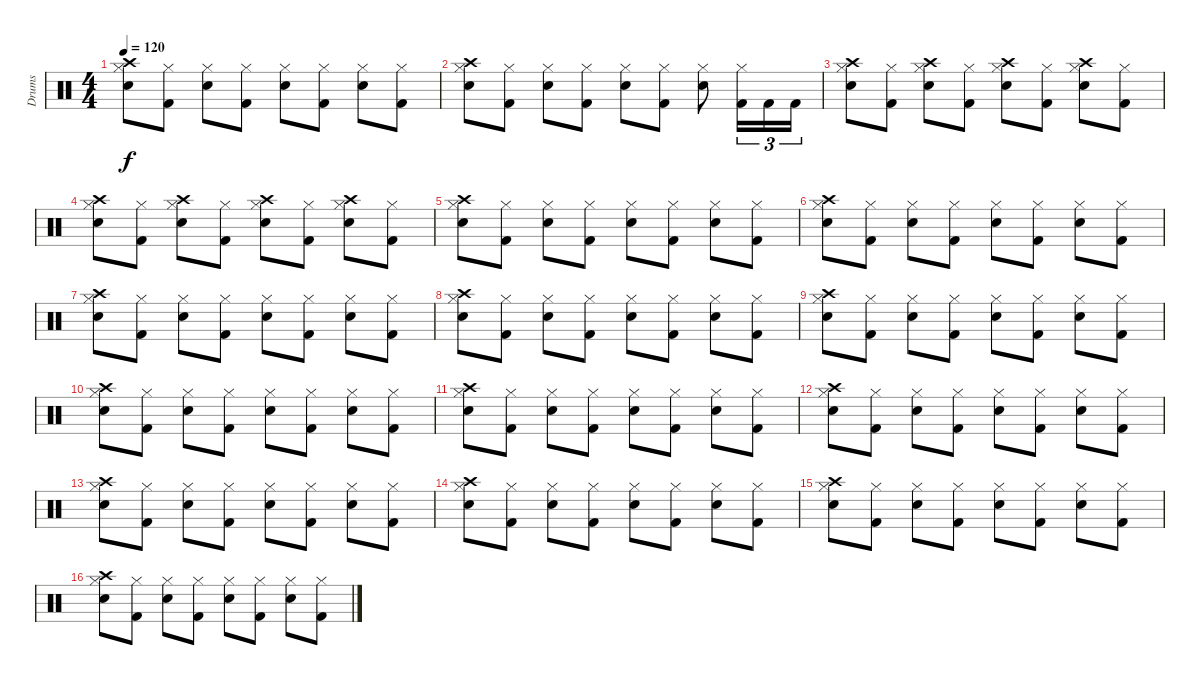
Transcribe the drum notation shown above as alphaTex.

\track ("Drums" "Drums") {instrument percussion}
\staff {score}
\articulation defaults
\ts (4 4)
\tempo 120
\clef neutral
\ks c
("Crash high (hit)" "Hi-Hat (closed)" "Electric Snare (hit)").8{dy f} ("Hi-Hat (closed)" "Kick (hit) 2").8 ("Hi-Hat (closed)" "Electric Snare (hit)").8 ("Hi-Hat (closed)" "Kick (hit) 2").8 ("Hi-Hat (closed)" "Electric Snare (hit)").8 ("Hi-Hat (closed)" "Kick (hit) 2").8 ("Hi-Hat (closed)" "Electric Snare (hit)").8 ("Hi-Hat (closed)" "Kick (hit) 2").8 |
("Crash high (hit)" "Hi-Hat (closed)" "Electric Snare (hit)").8 ("Hi-Hat (closed)" "Kick (hit) 2").8 ("Hi-Hat (closed)" "Electric Snare (hit)").8 ("Hi-Hat (closed)" "Kick (hit) 2").8 ("Hi-Hat (closed)" "Electric Snare (hit)").8 ("Hi-Hat (closed)" "Kick (hit) 2").8 ("Hi-Hat (closed)" "Electric Snare (hit)").8 ("Hi-Hat (closed)" "Kick (hit) 2").16{tu (3 2)} "Kick (hit) 2".16{tu (3 2)} "Kick (hit) 2".16{tu (3 2)} |
("Crash high (hit)" "Hi-Hat (closed)" "Electric Snare (hit)").8 ("Hi-Hat (closed)" "Kick (hit) 2").8 ("Crash high (hit)" "Hi-Hat (closed)" "Electric Snare (hit)").8 ("Hi-Hat (closed)" "Kick (hit) 2").8 ("Crash high (hit)" "Hi-Hat (closed)" "Electric Snare (hit)").8 ("Hi-Hat (closed)" "Kick (hit) 2").8 ("Crash high (hit)" "Hi-Hat (closed)" "Electric Snare (hit)").8 ("Hi-Hat (closed)" "Kick (hit) 2").8 |
("Crash high (hit)" "Hi-Hat (closed)" "Electric Snare (hit)").8 ("Hi-Hat (closed)" "Kick (hit) 2").8 ("Crash high (hit)" "Hi-Hat (closed)" "Electric Snare (hit)").8 ("Hi-Hat (closed)" "Kick (hit) 2").8 ("Crash high (hit)" "Hi-Hat (closed)" "Electric Snare (hit)").8 ("Hi-Hat (closed)" "Kick (hit) 2").8 ("Crash high (hit)" "Hi-Hat (closed)" "Electric Snare (hit)").8 ("Hi-Hat (closed)" "Kick (hit) 2").8 |
("Crash high (hit)" "Hi-Hat (closed)" "Electric Snare (hit)").8 ("Hi-Hat (closed)" "Kick (hit) 2").8 ("Hi-Hat (closed)" "Electric Snare (hit)").8 ("Hi-Hat (closed)" "Kick (hit) 2").8 ("Hi-Hat (closed)" "Electric Snare (hit)").8 ("Hi-Hat (closed)" "Kick (hit) 2").8 ("Hi-Hat (closed)" "Electric Snare (hit)").8 ("Hi-Hat (closed)" "Kick (hit) 2").8 |
("Crash high (hit)" "Hi-Hat (closed)" "Electric Snare (hit)").8 ("Hi-Hat (closed)" "Kick (hit) 2").8 ("Hi-Hat (closed)" "Electric Snare (hit)").8 ("Hi-Hat (closed)" "Kick (hit) 2").8 ("Hi-Hat (closed)" "Electric Snare (hit)").8 ("Hi-Hat (closed)" "Kick (hit) 2").8 ("Hi-Hat (closed)" "Electric Snare (hit)").8 ("Hi-Hat (closed)" "Kick (hit) 2").8 |
("Crash high (hit)" "Hi-Hat (closed)" "Electric Snare (hit)").8 ("Hi-Hat (closed)" "Kick (hit) 2").8 ("Hi-Hat (closed)" "Electric Snare (hit)").8 ("Hi-Hat (closed)" "Kick (hit) 2").8 ("Hi-Hat (closed)" "Electric Snare (hit)").8 ("Hi-Hat (closed)" "Kick (hit) 2").8 ("Hi-Hat (closed)" "Electric Snare (hit)").8 ("Hi-Hat (closed)" "Kick (hit) 2").8 |
("Crash high (hit)" "Hi-Hat (closed)" "Electric Snare (hit)").8 ("Hi-Hat (closed)" "Kick (hit) 2").8 ("Hi-Hat (closed)" "Electric Snare (hit)").8 ("Hi-Hat (closed)" "Kick (hit) 2").8 ("Hi-Hat (closed)" "Electric Snare (hit)").8 ("Hi-Hat (closed)" "Kick (hit) 2").8 ("Hi-Hat (closed)" "Electric Snare (hit)").8 ("Hi-Hat (closed)" "Kick (hit) 2").8 |
("Crash high (hit)" "Hi-Hat (closed)" "Electric Snare (hit)").8 ("Hi-Hat (closed)" "Kick (hit) 2").8 ("Hi-Hat (closed)" "Electric Snare (hit)").8 ("Hi-Hat (closed)" "Kick (hit) 2").8 ("Hi-Hat (closed)" "Electric Snare (hit)").8 ("Hi-Hat (closed)" "Kick (hit) 2").8 ("Hi-Hat (closed)" "Electric Snare (hit)").8 ("Hi-Hat (closed)" "Kick (hit) 2").8 |
("Crash high (hit)" "Hi-Hat (closed)" "Electric Snare (hit)").8 ("Hi-Hat (closed)" "Kick (hit) 2").8 ("Hi-Hat (closed)" "Electric Snare (hit)").8 ("Hi-Hat (closed)" "Kick (hit) 2").8 ("Hi-Hat (closed)" "Electric Snare (hit)").8 ("Hi-Hat (closed)" "Kick (hit) 2").8 ("Hi-Hat (closed)" "Electric Snare (hit)").8 ("Hi-Hat (closed)" "Kick (hit) 2").8 |
("Crash high (hit)" "Hi-Hat (closed)" "Electric Snare (hit)").8 ("Hi-Hat (closed)" "Kick (hit) 2").8 ("Hi-Hat (closed)" "Electric Snare (hit)").8 ("Hi-Hat (closed)" "Kick (hit) 2").8 ("Hi-Hat (closed)" "Electric Snare (hit)").8 ("Hi-Hat (closed)" "Kick (hit) 2").8 ("Hi-Hat (closed)" "Electric Snare (hit)").8 ("Hi-Hat (closed)" "Kick (hit) 2").8 |
("Crash high (hit)" "Hi-Hat (closed)" "Electric Snare (hit)").8 ("Hi-Hat (closed)" "Kick (hit) 2").8 ("Hi-Hat (closed)" "Electric Snare (hit)").8 ("Hi-Hat (closed)" "Kick (hit) 2").8 ("Hi-Hat (closed)" "Electric Snare (hit)").8 ("Hi-Hat (closed)" "Kick (hit) 2").8 ("Hi-Hat (closed)" "Electric Snare (hit)").8 ("Hi-Hat (closed)" "Kick (hit) 2").8 |
("Crash high (hit)" "Hi-Hat (closed)" "Electric Snare (hit)").8 ("Hi-Hat (closed)" "Kick (hit) 2").8 ("Hi-Hat (closed)" "Electric Snare (hit)").8 ("Hi-Hat (closed)" "Kick (hit) 2").8 ("Hi-Hat (closed)" "Electric Snare (hit)").8 ("Hi-Hat (closed)" "Kick (hit) 2").8 ("Hi-Hat (closed)" "Electric Snare (hit)").8 ("Hi-Hat (closed)" "Kick (hit) 2").8 |
("Crash high (hit)" "Hi-Hat (closed)" "Electric Snare (hit)").8 ("Hi-Hat (closed)" "Kick (hit) 2").8 ("Hi-Hat (closed)" "Electric Snare (hit)").8 ("Hi-Hat (closed)" "Kick (hit) 2").8 ("Hi-Hat (closed)" "Electric Snare (hit)").8 ("Hi-Hat (closed)" "Kick (hit) 2").8 ("Hi-Hat (closed)" "Electric Snare (hit)").8 ("Hi-Hat (closed)" "Kick (hit) 2").8 |
("Crash high (hit)" "Hi-Hat (closed)" "Electric Snare (hit)").8 ("Hi-Hat (closed)" "Kick (hit) 2").8 ("Hi-Hat (closed)" "Electric Snare (hit)").8 ("Hi-Hat (closed)" "Kick (hit) 2").8 ("Hi-Hat (closed)" "Electric Snare (hit)").8 ("Hi-Hat (closed)" "Kick (hit) 2").8 ("Hi-Hat (closed)" "Electric Snare (hit)").8 ("Hi-Hat (closed)" "Kick (hit) 2").8 |
("Crash high (hit)" "Hi-Hat (closed)" "Electric Snare (hit)").8 ("Hi-Hat (closed)" "Kick (hit) 2").8 ("Hi-Hat (closed)" "Electric Snare (hit)").8 ("Hi-Hat (closed)" "Kick (hit) 2").8 ("Hi-Hat (closed)" "Electric Snare (hit)").8 ("Hi-Hat (closed)" "Kick (hit) 2").8 ("Hi-Hat (closed)" "Electric Snare (hit)").8 ("Hi-Hat (closed)" "Kick (hit) 2").8
